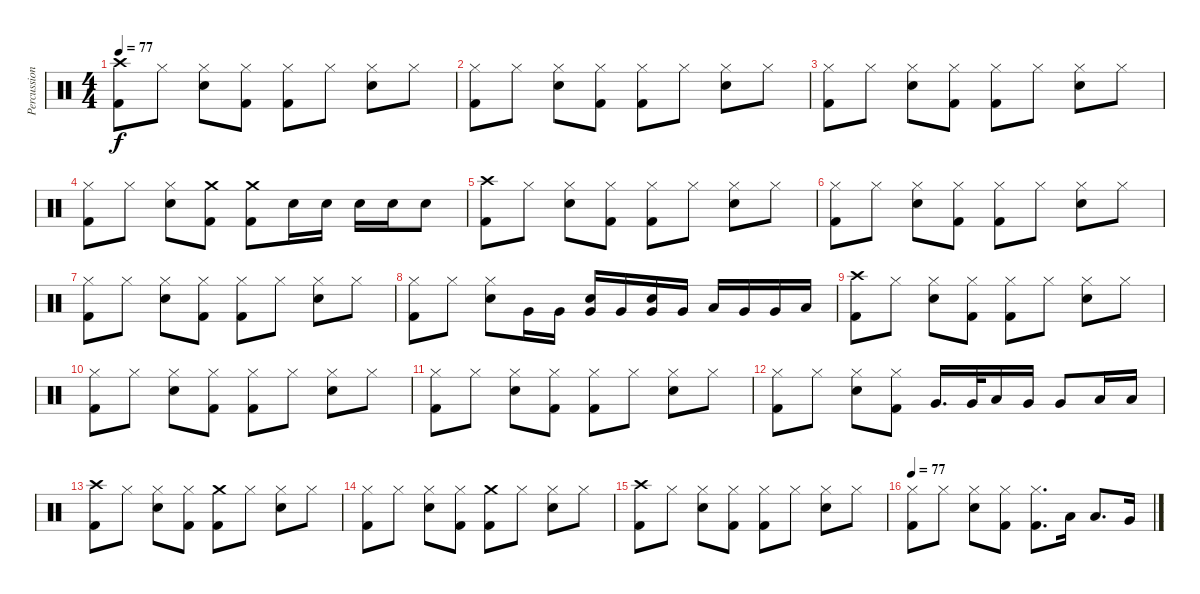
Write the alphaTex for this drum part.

\track ("Percussion" "Percussion") {instrument percussion}
\staff {score}
\articulation defaults
\ts (4 4)
\tempo 77
\clef neutral
\ks c
("Crash high (hit)" "Kick (hit) 2").8{dy f} "Hi-Hat (closed)".8 ("Hi-Hat (closed)" "Electric Snare (hit)").8 ("Hi-Hat (closed)" "Kick (hit) 2").8 ("Hi-Hat (closed)" "Kick (hit) 2").8 "Hi-Hat (closed)".8 ("Hi-Hat (closed)" "Electric Snare (hit)").8 "Hi-Hat (closed)".8 |
("Hi-Hat (closed)" "Kick (hit) 2").8 "Hi-Hat (closed)".8 ("Hi-Hat (closed)" "Electric Snare (hit)").8 ("Hi-Hat (closed)" "Kick (hit) 2").8 ("Hi-Hat (closed)" "Kick (hit) 2").8 "Hi-Hat (closed)".8 ("Hi-Hat (closed)" "Electric Snare (hit)").8 "Hi-Hat (closed)".8 |
("Hi-Hat (closed)" "Kick (hit) 2").8 "Hi-Hat (closed)".8 ("Hi-Hat (closed)" "Electric Snare (hit)").8 ("Hi-Hat (closed)" "Kick (hit) 2").8 ("Hi-Hat (closed)" "Kick (hit) 2").8 "Hi-Hat (closed)".8 ("Hi-Hat (closed)" "Electric Snare (hit)").8 "Hi-Hat (closed)".8 |
("Hi-Hat (closed)" "Kick (hit) 2").8 "Hi-Hat (closed)".8 ("Hi-Hat (closed)" "Electric Snare (hit)").8 ("Crash medium (hit)" "Kick (hit) 2").8 ("Crash medium (hit)" "Kick (hit) 2").8 "Electric Snare (hit)".16{volume 9} "Electric Snare (hit)".16{volume 11} "Electric Snare (hit)".16{volume 13} "Electric Snare (hit)".16{volume 15} "Electric Snare (hit)".8{volume 16} |
("Crash high (hit)" "Kick (hit) 2").8 "Hi-Hat (closed)".8 ("Hi-Hat (closed)" "Electric Snare (hit)").8 ("Hi-Hat (closed)" "Kick (hit) 2").8 ("Hi-Hat (closed)" "Kick (hit) 2").8 "Hi-Hat (closed)".8 ("Hi-Hat (closed)" "Electric Snare (hit)").8 "Hi-Hat (closed)".8 |
("Hi-Hat (closed)" "Kick (hit) 2").8 "Hi-Hat (closed)".8 ("Hi-Hat (closed)" "Electric Snare (hit)").8 ("Hi-Hat (closed)" "Kick (hit) 2").8 ("Hi-Hat (closed)" "Kick (hit) 2").8 "Hi-Hat (closed)".8 ("Hi-Hat (closed)" "Electric Snare (hit)").8 "Hi-Hat (closed)".8 |
("Hi-Hat (closed)" "Kick (hit) 2").8 "Hi-Hat (closed)".8 ("Hi-Hat (closed)" "Electric Snare (hit)").8 ("Hi-Hat (closed)" "Kick (hit) 2").8 ("Hi-Hat (closed)" "Kick (hit) 2").8 "Hi-Hat (closed)".8 ("Hi-Hat (closed)" "Electric Snare (hit)").8 "Hi-Hat (closed)".8 |
("Hi-Hat (closed)" "Kick (hit) 2").8 "Hi-Hat (closed)".8 ("Hi-Hat (closed)" "Electric Snare (hit)").8 "Very Low Tom (hit)".16 "Very Low Tom (hit)".16 ("Very Low Tom (hit)" "Electric Snare (hit)").16 "Very Low Tom (hit)".16 ("Very Low Tom (hit)" "Electric Snare (hit)").16 "Very Low Tom (hit)".16 "Low Tom (hit)".16 "Very Low Tom (hit)".16 "Very Low Tom (hit)".16 "Low Tom (hit)".16 |
("Crash high (hit)" "Kick (hit) 2").8 "Hi-Hat (closed)".8 ("Hi-Hat (closed)" "Electric Snare (hit)").8 ("Hi-Hat (closed)" "Kick (hit) 2").8 ("Hi-Hat (closed)" "Kick (hit) 2").8 "Hi-Hat (closed)".8 ("Hi-Hat (closed)" "Electric Snare (hit)").8 "Hi-Hat (closed)".8 |
("Hi-Hat (closed)" "Kick (hit) 2").8 "Hi-Hat (closed)".8 ("Hi-Hat (closed)" "Electric Snare (hit)").8 ("Hi-Hat (closed)" "Kick (hit) 2").8 ("Hi-Hat (closed)" "Kick (hit) 2").8 "Hi-Hat (closed)".8 ("Hi-Hat (closed)" "Electric Snare (hit)").8 "Hi-Hat (closed)".8 |
("Hi-Hat (closed)" "Kick (hit) 2").8 "Hi-Hat (closed)".8 ("Hi-Hat (closed)" "Electric Snare (hit)").8 ("Hi-Hat (closed)" "Kick (hit) 2").8 ("Hi-Hat (closed)" "Kick (hit) 2").8 "Hi-Hat (closed)".8 ("Hi-Hat (closed)" "Electric Snare (hit)").8 "Hi-Hat (closed)".8 |
("Hi-Hat (closed)" "Kick (hit) 2").8 "Hi-Hat (closed)".8 ("Hi-Hat (closed)" "Electric Snare (hit)").8 ("Hi-Hat (closed)" "Kick (hit) 2").8 "Very Low Tom (hit)".16{d} "Very Low Tom (hit)".32 "Low Tom (hit)".16 "Very Low Tom (hit)".16 "Very Low Tom (hit)".8 "Low Tom (hit)".16 "Low Tom (hit)".16 |
("Crash high (hit)" "Kick (hit) 2").8 "Hi-Hat (closed)".8 ("Hi-Hat (closed)" "Electric Snare (hit)").8 ("Hi-Hat (closed)" "Kick (hit) 2").8 ("Crash medium (hit)" "Kick (hit) 2").8 "Hi-Hat (closed)".8 ("Hi-Hat (closed)" "Electric Snare (hit)").8 "Hi-Hat (closed)".8 |
("Hi-Hat (closed)" "Kick (hit) 2").8 "Hi-Hat (closed)".8 ("Hi-Hat (closed)" "Electric Snare (hit)").8 ("Hi-Hat (closed)" "Kick (hit) 2").8 ("Crash medium (hit)" "Kick (hit) 2").8 "Hi-Hat (closed)".8 ("Hi-Hat (closed)" "Electric Snare (hit)").8 "Hi-Hat (closed)".8 |
("Crash high (hit)" "Kick (hit) 2").8 "Hi-Hat (closed)".8 ("Hi-Hat (closed)" "Electric Snare (hit)").8 ("Hi-Hat (closed)" "Kick (hit) 2").8 ("Hi-Hat (closed)" "Kick (hit) 2").8 "Hi-Hat (closed)".8 ("Hi-Hat (closed)" "Electric Snare (hit)").8 "Hi-Hat (closed)".8 |
\tempo 77
("Hi-Hat (closed)" "Kick (hit) 2").8 "Hi-Hat (closed)".8 ("Hi-Hat (closed)" "Electric Snare (hit)").8 ("Hi-Hat (closed)" "Kick (hit) 2").8 ("Hi-Hat (closed)" "Kick (hit) 2").8{d} "Low Tom (hit)".16 "Low Tom (hit)".8{d} "Very Low Tom (hit)".16
